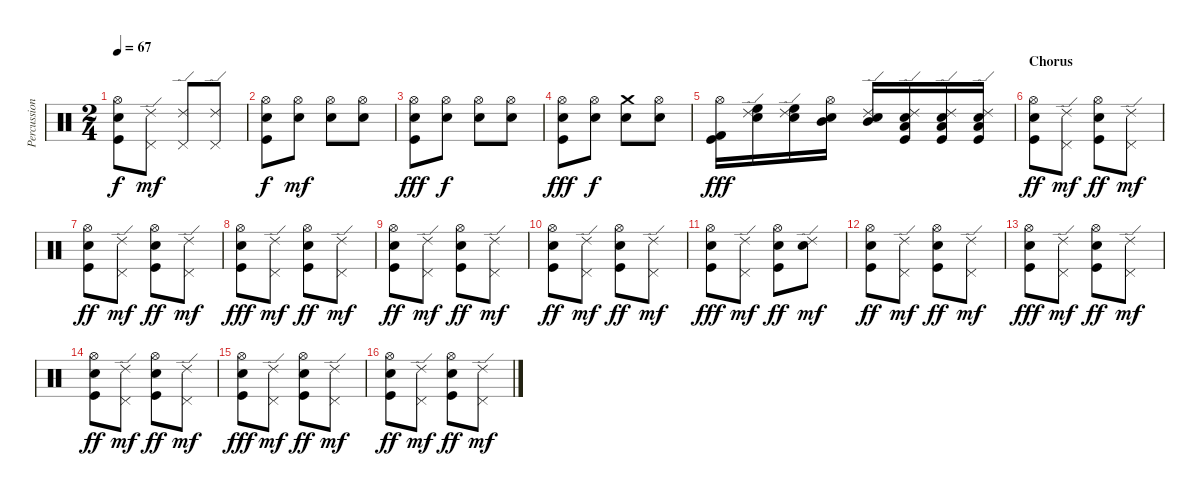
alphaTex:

\track ("Percussions" "Percussion") {instrument percussion}
\staff {score}
\articulation defaults
\ts (2 4)
\tempo 67
\clef neutral
\ks c
("Hi-Hat (open)" "Snare (hit) 2" "Kick (hit)").8{dy f} ("Ride (edge) 2" "Pedal Hi-Hat (hit)").8{dy mf} ("Ride (edge) 2" "Pedal Hi-Hat (hit)").8 ("Ride (edge) 2" "Pedal Hi-Hat (hit)").8 |
("Hi-Hat (open)" "Snare (hit) 2" "Kick (hit)").8{dy f} ("Hi-Hat (open)" "Snare (hit) 2").8{dy mf} ("Hi-Hat (open)" "Snare (hit) 2").8 ("Hi-Hat (open)" "Snare (hit) 2").8 |
("Hi-Hat (open)" "Snare (hit) 2" "Kick (hit)").8{dy fff} ("Hi-Hat (open)" "Snare (hit) 2").8{dy f} ("Hi-Hat (open)" "Snare (hit) 2").8 ("Hi-Hat (open)" "Snare (hit) 2").8 |
("Hi-Hat (open)" "Snare (hit) 2" "Kick (hit)").8{dy fff} ("Hi-Hat (open)" "Snare (hit) 2").8{dy f} ("Crash medium (hit)" "Snare (hit) 2").8 ("Hi-Hat (open)" "Snare (hit) 2").8 |
("Hi-Hat (open)" "Kick (hit) 2" "Kick (hit)").16{dy fff} ("Ride (edge) 2" "Electric Snare (hit)" "High Floor Tom (hit)").16 ("Ride (edge) 2" "Electric Snare (hit)" "High Floor Tom (hit)").16 ("Hi-Hat (open)" "Electric Snare (hit)" "Mid Tom (hit)").16 ("Ride (edge) 2" "Electric Snare (hit)" "Mid Tom (hit)").16 ("Ride (edge) 2" "Electric Snare (hit)" "Low Tom (hit)" "Kick (hit)").16 ("Ride (edge) 2" "Electric Snare (hit)" "Low Tom (hit)" "Kick (hit)").16 ("Ride (edge) 2" "Electric Snare (hit)" "Low Tom (hit)" "Kick (hit)").16 |
\section ("" "Chorus")
("Hi-Hat (open)" "Snare (hit) 2" "Kick (hit)").8{dy ff} ("Ride (edge) 2" "Pedal Hi-Hat (hit)").8{dy mf} ("Hi-Hat (open)" "Snare (hit) 2" "Kick (hit)").8{dy ff} ("Ride (edge) 2" "Pedal Hi-Hat (hit)").8{dy mf} |
("Hi-Hat (open)" "Snare (hit) 2" "Kick (hit)").8{dy ff} ("Ride (edge) 2" "Pedal Hi-Hat (hit)").8{dy mf} ("Hi-Hat (open)" "Snare (hit) 2" "Kick (hit)").8{dy ff} ("Ride (edge) 2" "Pedal Hi-Hat (hit)").8{dy mf} |
("Hi-Hat (open)" "Electric Snare (hit)" "Kick (hit)").8{dy fff} ("Ride (edge) 2" "Pedal Hi-Hat (hit)").8{dy mf} ("Hi-Hat (open)" "Snare (hit) 2" "Kick (hit)").8{dy ff} ("Ride (edge) 2" "Pedal Hi-Hat (hit)").8{dy mf} |
("Hi-Hat (open)" "Snare (hit) 2" "Kick (hit)").8{dy ff} ("Ride (edge) 2" "Pedal Hi-Hat (hit)").8{dy mf} ("Hi-Hat (open)" "Snare (hit) 2" "Kick (hit)").8{dy ff} ("Ride (edge) 2" "Pedal Hi-Hat (hit)").8{dy mf} |
("Hi-Hat (open)" "Snare (hit) 2" "Kick (hit)").8{dy ff} ("Ride (edge) 2" "Pedal Hi-Hat (hit)").8{dy mf} ("Hi-Hat (open)" "Snare (hit) 2" "Kick (hit)").8{dy ff} ("Ride (edge) 2" "Pedal Hi-Hat (hit)").8{dy mf} |
("Hi-Hat (open)" "Electric Snare (hit)" "Kick (hit)").8{dy fff} ("Ride (edge) 2" "Pedal Hi-Hat (hit)").8{dy mf} ("Hi-Hat (open)" "Electric Snare (hit)" "Kick (hit)").8{dy ff} ("Ride (edge) 2" "Electric Snare (hit)").8{dy mf} |
("Hi-Hat (open)" "Snare (hit) 2" "Kick (hit)").8{dy ff} ("Ride (edge) 2" "Pedal Hi-Hat (hit)").8{dy mf} ("Hi-Hat (open)" "Snare (hit) 2" "Kick (hit)").8{dy ff} ("Ride (edge) 2" "Pedal Hi-Hat (hit)").8{dy mf} |
("Hi-Hat (open)" "Electric Snare (hit)" "Kick (hit)").8{dy fff} ("Ride (edge) 2" "Pedal Hi-Hat (hit)").8{dy mf} ("Hi-Hat (open)" "Snare (hit) 2" "Kick (hit)").8{dy ff} ("Ride (edge) 2" "Pedal Hi-Hat (hit)").8{dy mf} |
("Hi-Hat (open)" "Snare (hit) 2" "Kick (hit)").8{dy ff} ("Ride (edge) 2" "Pedal Hi-Hat (hit)").8{dy mf} ("Hi-Hat (open)" "Snare (hit) 2" "Kick (hit)").8{dy ff} ("Ride (edge) 2" "Pedal Hi-Hat (hit)").8{dy mf} |
("Hi-Hat (open)" "Electric Snare (hit)" "Kick (hit)").8{dy fff} ("Ride (edge) 2" "Pedal Hi-Hat (hit)").8{dy mf} ("Hi-Hat (open)" "Snare (hit) 2" "Kick (hit)").8{dy ff} ("Ride (edge) 2" "Pedal Hi-Hat (hit)").8{dy mf} |
("Hi-Hat (open)" "Snare (hit) 2" "Kick (hit)").8{dy ff} ("Ride (edge) 2" "Pedal Hi-Hat (hit)").8{dy mf} ("Hi-Hat (open)" "Snare (hit) 2" "Kick (hit)").8{dy ff} ("Ride (edge) 2" "Pedal Hi-Hat (hit)").8{dy mf}
